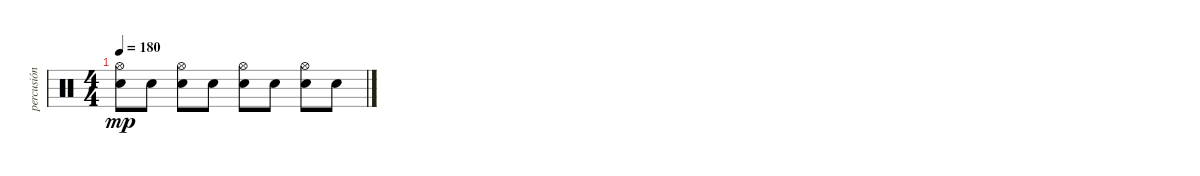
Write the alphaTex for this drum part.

\track ("percusión" "percusión") {instrument percussion}
\staff {score}
\articulation defaults
\ts (4 4)
\tempo 180
\clef neutral
\ks c
("Snare (hit) 2" "Hi-Hat (open)").8{dy mp} "Snare (hit) 2".8 ("Hi-Hat (open)" "Snare (hit) 2").8 "Snare (hit) 2".8 ("Snare (hit) 2" "Hi-Hat (open)").8 "Snare (hit) 2".8 ("Hi-Hat (open)" "Snare (hit) 2").8 "Snare (hit) 2".8
